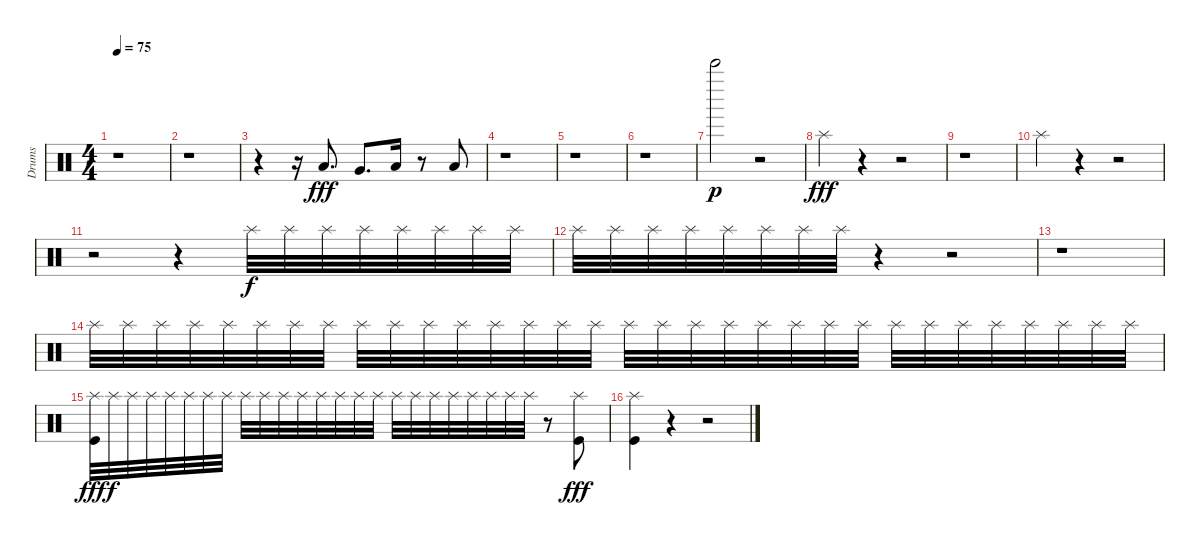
\track ("Drums" "Drums") {instrument percussion}
\staff {score}
\articulation defaults
\ts (4 4)
\tempo 75
\clef neutral
\ks c
r.1{dy fff} |
r.1 |
r.4 r.16 "Low Tom (hit)".8{d} "Very Low Tom (hit)".8{d} "Low Floor Tom (hit)".16 r.8 "Low Floor Tom (hit)".8 |
r.1 |
r.1 |
r.1 |
"Bell Tree (hit)".2{dy p} r.2 |
"Splash (hit)".4{dy fff} r.4 r.2 |
r.1 |
"Splash (hit)".4 r.4 r.2 |
r.2 r.4 "Splash (hit)".32{dy f volume 9} "Splash (hit)".32 "Splash (hit)".32 "Splash (hit)".32 "Splash (hit)".32 "Splash (hit)".32 "Splash (hit)".32 "Splash (hit)".32 |
"Splash (hit)".32 "Splash (hit)".32 "Splash (hit)".32 "Splash (hit)".32 "Splash (hit)".32 "Splash (hit)".32 "Splash (hit)".32 "Splash (hit)".32 r.4 r.2 |
r.1 |
"Splash (hit)".32 "Splash (hit)".32 "Splash (hit)".32 "Splash (hit)".32 "Splash (hit)".32 "Splash (hit)".32 "Splash (hit)".32 "Splash (hit)".32 "Splash (hit)".32 "Splash (hit)".32 "Splash (hit)".32 "Splash (hit)".32 "Splash (hit)".32 "Splash (hit)".32 "Splash (hit)".32 "Splash (hit)".32 "Splash (hit)".32 "Splash (hit)".32 "Splash (hit)".32 "Splash (hit)".32 "Splash (hit)".32 "Splash (hit)".32 "Splash (hit)".32 "Splash (hit)".32 "Splash (hit)".32 "Splash (hit)".32 "Splash (hit)".32 "Splash (hit)".32 "Splash (hit)".32 "Splash (hit)".32 "Splash (hit)".32 "Splash (hit)".32 |
("Splash (hit)" "Kick (hit)").32{dy fff} "Splash (hit)".32{dy f} "Splash (hit)".32 "Splash (hit)".32 "Splash (hit)".32 "Splash (hit)".32 "Splash (hit)".32 "Splash (hit)".32 "Splash (hit)".32 "Splash (hit)".32 "Splash (hit)".32 "Splash (hit)".32 "Splash (hit)".32 "Splash (hit)".32 "Splash (hit)".32 "Splash (hit)".32 "Splash (hit)".32 "Splash (hit)".32 "Splash (hit)".32 "Splash (hit)".32 "Splash (hit)".32 "Splash (hit)".32 "Splash (hit)".32 "Splash (hit)".32 r.8 ("Splash (hit)" "Kick (hit)").8{dy fff} |
("Splash (hit)" "Kick (hit)").4 r.4 r.2
